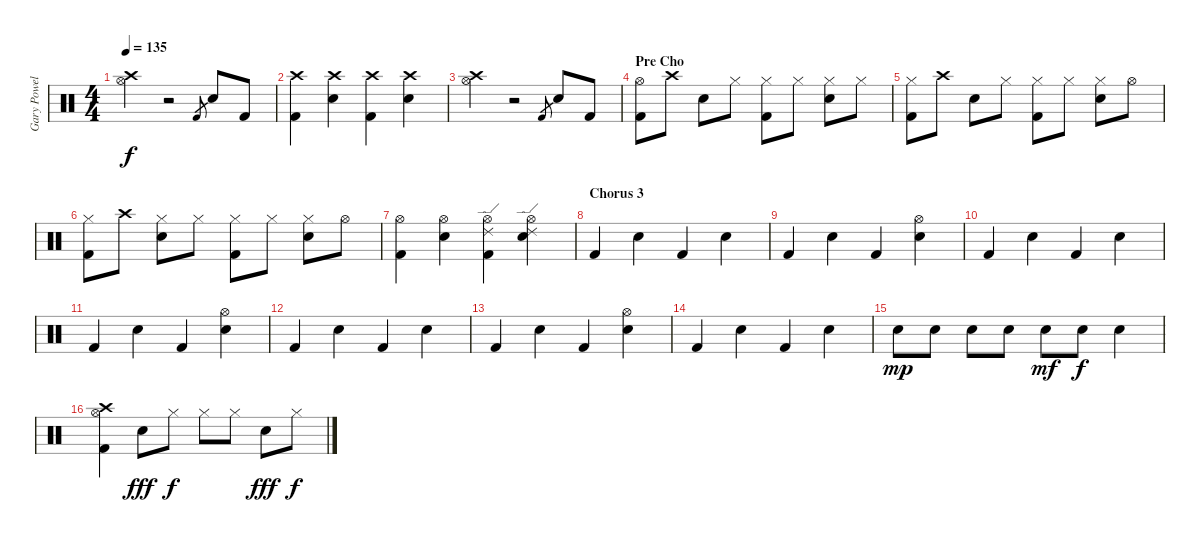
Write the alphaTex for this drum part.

\track ("Gary Powell" "Gary Powel") {instrument percussion}
\staff {score}
\articulation defaults
\ts (4 4)
\tempo 135
\clef neutral
\ks c
("Hi-Hat (open)" "Crash high (hit)").4{dy f} r.2 "Kick (hit) 2".8{gr} "Electric Snare (hit)".8 "Kick (hit) 2".8 |
("Kick (hit) 2" "Crash high (hit)").4 ("Electric Snare (hit)" "Crash high (hit)").4 ("Kick (hit) 2" "Crash high (hit)").4 ("Electric Snare (hit)" "Crash high (hit)").4 |
("Hi-Hat (open)" "Crash high (hit)").4 r.2 "Kick (hit) 2".8{gr} "Electric Snare (hit)".8 "Kick (hit) 2".8 |
\section ("" "Pre Cho")
("Hi-Hat (open)" "Kick (hit) 2").8 "Crash high (hit)".8 "Electric Snare (hit)".8 "Hi-Hat (closed)".8 ("Hi-Hat (closed)" "Kick (hit) 2").8 "Hi-Hat (closed)".8 ("Hi-Hat (closed)" "Electric Snare (hit)").8 "Hi-Hat (closed)".8 |
("Hi-Hat (closed)" "Kick (hit) 2").8 "Crash high (hit)".8 "Electric Snare (hit)".8 "Hi-Hat (closed)".8 ("Hi-Hat (closed)" "Kick (hit) 2").8 "Hi-Hat (closed)".8 ("Hi-Hat (closed)" "Electric Snare (hit)").8 "Hi-Hat (open)".8 |
("Hi-Hat (closed)" "Kick (hit) 2").8 "Crash high (hit)".8 ("Hi-Hat (closed)" "Electric Snare (hit)").8 "Hi-Hat (closed)".8 ("Hi-Hat (closed)" "Kick (hit) 2").8 "Hi-Hat (closed)".8 ("Hi-Hat (closed)" "Electric Snare (hit)").8 "Hi-Hat (open)".8 |
("Hi-Hat (open)" "Kick (hit) 2").4 ("Hi-Hat (open)" "Electric Snare (hit)").4 ("Hi-Hat (open)" "Kick (hit) 2" "Ride (edge) 2").4 ("Hi-Hat (open)" "Electric Snare (hit)" "Ride (edge) 2").4 |
\section ("" "Chorus 3")
"Kick (hit) 2".4 "Electric Snare (hit)".4 "Kick (hit) 2".4 "Electric Snare (hit)".4 |
"Kick (hit) 2".4 "Electric Snare (hit)".4 "Kick (hit) 2".4 ("Hi-Hat (open)" "Electric Snare (hit)").4 |
"Kick (hit) 2".4 "Electric Snare (hit)".4 "Kick (hit) 2".4 "Electric Snare (hit)".4 |
"Kick (hit) 2".4 "Electric Snare (hit)".4 "Kick (hit) 2".4 ("Hi-Hat (open)" "Electric Snare (hit)").4 |
"Kick (hit) 2".4 "Electric Snare (hit)".4 "Kick (hit) 2".4 "Electric Snare (hit)".4 |
"Kick (hit) 2".4 "Electric Snare (hit)".4 "Kick (hit) 2".4 ("Hi-Hat (open)" "Electric Snare (hit)").4 |
"Kick (hit) 2".4 "Electric Snare (hit)".4 "Kick (hit) 2".4 "Electric Snare (hit)".4 |
"Electric Snare (hit)".8{dy mp} "Electric Snare (hit)".8 "Electric Snare (hit)".8 "Electric Snare (hit)".8 "Electric Snare (hit)".8{dy mf} "Electric Snare (hit)".8{dy f} "Electric Snare (hit)".4 |
("Hi-Hat (open)" "Kick (hit) 2" "Crash high (hit)").4 "Electric Snare (hit)".8{dy fff} "Hi-Hat (closed)".8{dy f} "Hi-Hat (closed)".8 "Hi-Hat (closed)".8 "Electric Snare (hit)".8{dy fff} "Hi-Hat (closed)".8{dy f}
